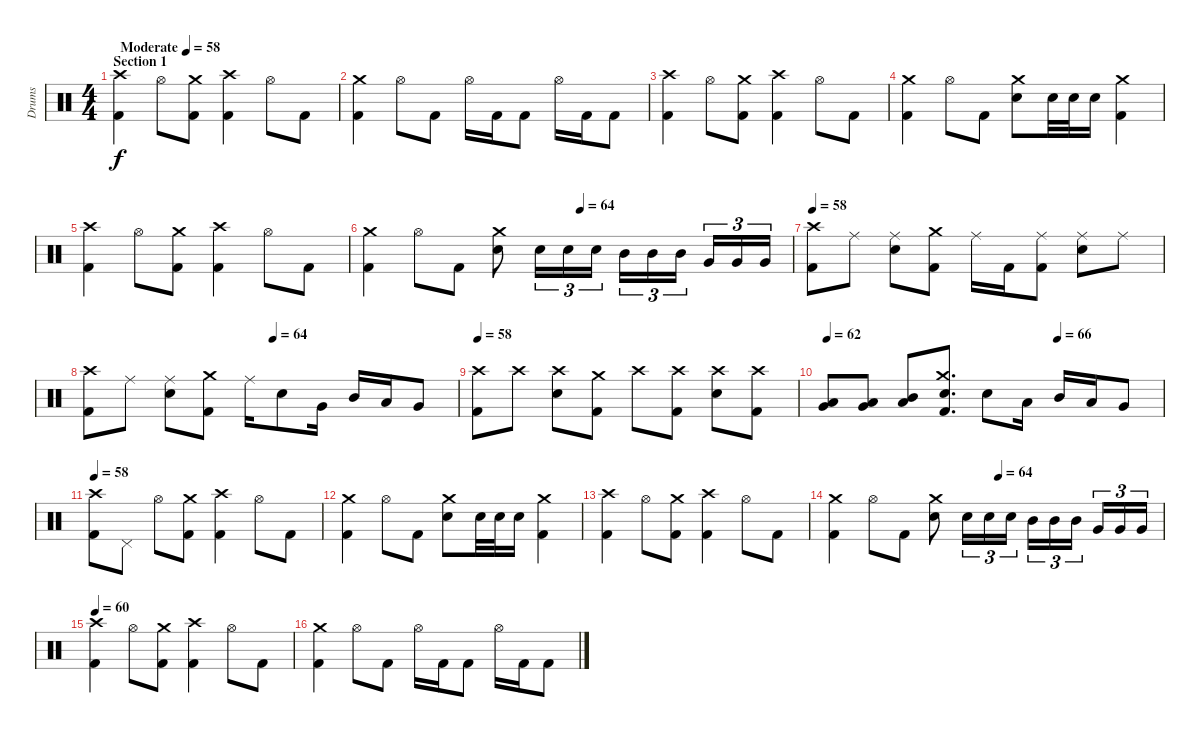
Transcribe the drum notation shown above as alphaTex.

\track ("Drums" "Drums") {instrument percussion}
\staff {score}
\articulation defaults
\ts (4 4)
\section ("" "Section 1")
\tempo (58 "Moderate")
\clef neutral
\ks c
("Crash high (hit)" "Kick (hit) 2").4{dy f} "Hi-Hat (open)".8 ("Crash medium (hit)" "Kick (hit) 2").8 ("Crash high (hit)" "Kick (hit) 2").4 "Hi-Hat (open)".8 "Kick (hit) 2".8 |
("Crash medium (hit)" "Kick (hit) 2").4 "Hi-Hat (open)".8 "Kick (hit) 2".8 "Hi-Hat (open)".16 "Kick (hit) 2".16 "Kick (hit) 2".8 "Hi-Hat (open)".16 "Kick (hit) 2".16 "Kick (hit) 2".8 |
("Crash high (hit)" "Kick (hit) 2").4 "Hi-Hat (open)".8 ("Crash medium (hit)" "Kick (hit) 2").8 ("Crash high (hit)" "Kick (hit) 2").4 "Hi-Hat (open)".8 "Kick (hit) 2".8 |
("Crash medium (hit)" "Kick (hit) 2").4 "Hi-Hat (open)".8 "Kick (hit) 2".8 ("Crash medium (hit)" "Electric Snare (hit)").8 "Electric Snare (hit)".32 "Electric Snare (hit)".32 "Electric Snare (hit)".16 ("Crash medium (hit)" "Kick (hit) 2").4 |
("Crash high (hit)" "Kick (hit) 2").4 "Hi-Hat (open)".8 ("Crash medium (hit)" "Kick (hit) 2").8 ("Crash high (hit)" "Kick (hit) 2").4 "Hi-Hat (open)".8 "Kick (hit) 2".8 |
\tempo (64 0.5)
("Crash medium (hit)" "Kick (hit) 2").4 "Hi-Hat (open)".8 "Kick (hit) 2".8 ("Crash medium (hit)" "Electric Snare (hit)").8 "Electric Snare (hit)".16{tu (3 2)} "Electric Snare (hit)".16{tu (3 2)} "Electric Snare (hit)".16{tu (3 2)} "Mid Tom (hit)".16{tu (3 2)} "Mid Tom (hit)".16{tu (3 2)} "Mid Tom (hit)".16{tu (3 2) beam splitsecondary} "Very Low Tom (hit)".16{tu (3 2)} "Very Low Tom (hit)".16{tu (3 2)} "Very Low Tom (hit)".16{tu (3 2)} |
\tempo 58
("Crash high (hit)" "Kick (hit) 2").8 "Ride (middle)".8 ("Ride (middle)" "Electric Snare (hit)").8 ("Crash medium (hit)" "Kick (hit) 2").8 "Ride (middle)".16 "Kick (hit) 2".16 ("Ride (middle)" "Kick (hit) 2").8 ("Ride (middle)" "Electric Snare (hit)").8 "Ride (middle)".8 |
\tempo (64 0.5)
("Crash high (hit)" "Kick (hit) 2").8 "Ride (middle)".8 ("Ride (middle)" "Electric Snare (hit)").8 ("Crash medium (hit)" "Kick (hit) 2").8 "Ride (middle)".16 "Electric Snare (hit)".8 "Very Low Tom (hit)".16 "Mid Tom (hit)".16 "Low Tom (hit)".16 "Very Low Tom (hit)".8 |
\tempo 58
("Crash high (hit)" "Kick (hit) 2").8 "Crash high (hit)".8 ("Crash high (hit)" "Electric Snare (hit)").8 ("Crash medium (hit)" "Kick (hit) 2").8 "Crash high (hit)".8 ("Crash high (hit)" "Kick (hit) 2").8 ("Crash high (hit)" "Electric Snare (hit)").8 ("Crash high (hit)" "Kick (hit) 2").8 |
\tempo 62
\tempo (66 0.6875)
("Very Low Tom (hit)" "Low Floor Tom (hit)").8 ("Very Low Tom (hit)" "Low Floor Tom (hit)").8 ("Mid Tom (hit)" "Low Tom (hit)").8 ("Crash medium (hit)" "Electric Snare (hit)" "Kick (hit) 2").8{d} "Electric Snare (hit)".8 "Low Tom (hit)".16 "Mid Tom (hit)".16 "Low Tom (hit)".16 "Very Low Tom (hit)".8 |
\tempo 58
("Crash high (hit)" "Kick (hit) 2").8 "Pedal Hi-Hat (hit)".8 "Hi-Hat (open)".8 ("Crash medium (hit)" "Kick (hit) 2").8 ("Crash high (hit)" "Kick (hit) 2").4 "Hi-Hat (open)".8 "Kick (hit) 2".8 |
("Crash medium (hit)" "Kick (hit) 2").4 "Hi-Hat (open)".8 "Kick (hit) 2".8 ("Crash medium (hit)" "Electric Snare (hit)").8 "Electric Snare (hit)".32 "Electric Snare (hit)".32 "Electric Snare (hit)".16 ("Crash medium (hit)" "Kick (hit) 2").4 |
("Crash high (hit)" "Kick (hit) 2").4 "Hi-Hat (open)".8 ("Crash medium (hit)" "Kick (hit) 2").8 ("Crash high (hit)" "Kick (hit) 2").4 "Hi-Hat (open)".8 "Kick (hit) 2".8 |
\tempo (64 0.5)
("Crash medium (hit)" "Kick (hit) 2").4 "Hi-Hat (open)".8 "Kick (hit) 2".8 ("Crash medium (hit)" "Electric Snare (hit)").8 "Electric Snare (hit)".16{tu (3 2)} "Electric Snare (hit)".16{tu (3 2)} "Electric Snare (hit)".16{tu (3 2)} "Mid Tom (hit)".16{tu (3 2)} "Mid Tom (hit)".16{tu (3 2)} "Mid Tom (hit)".16{tu (3 2) beam splitsecondary} "Very Low Tom (hit)".16{tu (3 2)} "Very Low Tom (hit)".16{tu (3 2)} "Very Low Tom (hit)".16{tu (3 2)} |
\tempo 60
("Crash high (hit)" "Kick (hit) 2").4 "Hi-Hat (open)".8 ("Crash medium (hit)" "Kick (hit) 2").8 ("Crash high (hit)" "Kick (hit) 2").4 "Hi-Hat (open)".8 "Kick (hit) 2".8 |
("Crash medium (hit)" "Kick (hit) 2").4 "Hi-Hat (open)".8 "Kick (hit) 2".8 "Hi-Hat (open)".16 "Kick (hit) 2".16 "Kick (hit) 2".8 "Hi-Hat (open)".16 "Kick (hit) 2".16 "Kick (hit) 2".8
